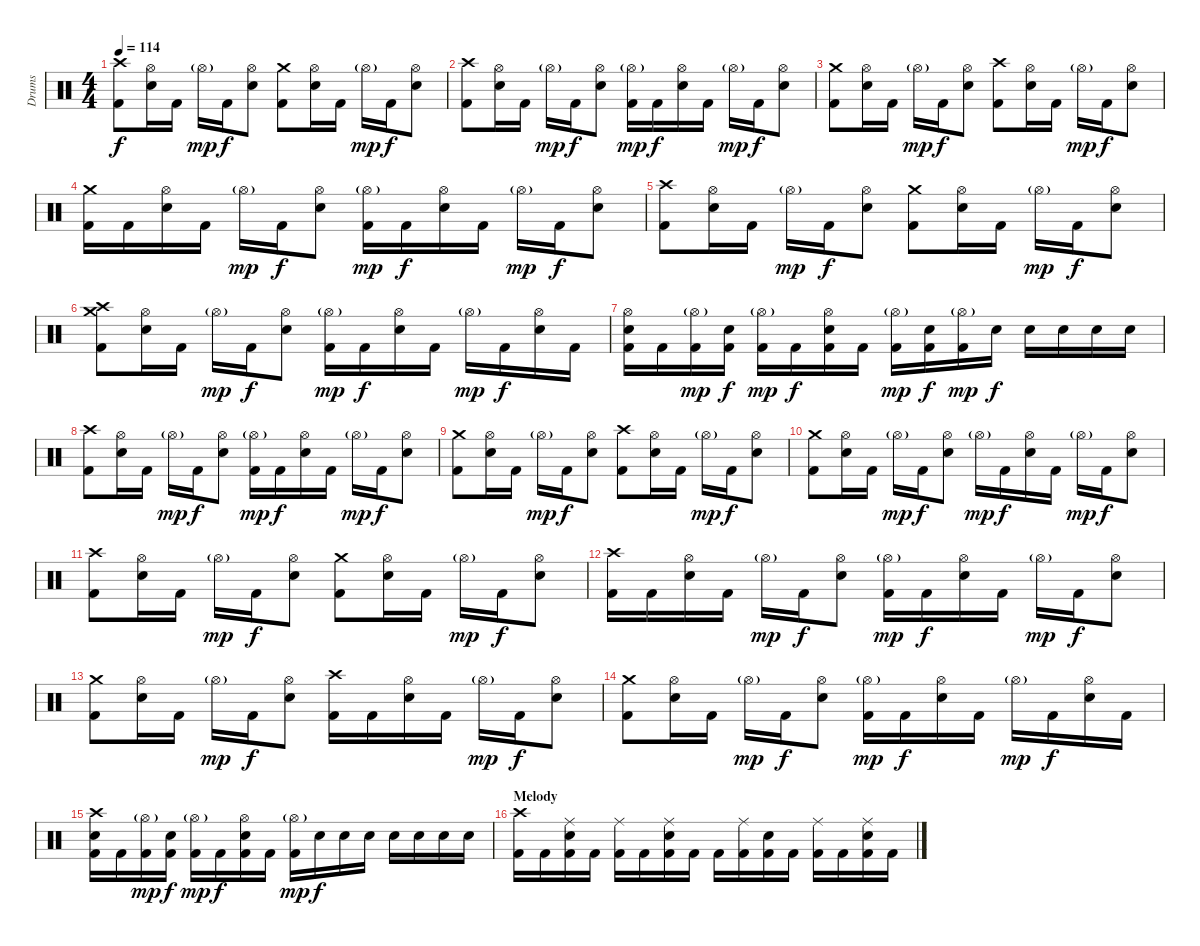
\track ("Drums" "Drums") {instrument percussion}
\staff {score}
\articulation defaults
\ts (4 4)
\tempo 114
\clef neutral
\ks c
("Crash high (hit)" "Kick (hit) 2").8{dy f} ("Hi-Hat (open)" "Snare (hit) 2").16 "Kick (hit) 2".16 "Hi-Hat (open)"{g}.16{dy mp} "Kick (hit) 2".16{dy f} ("Hi-Hat (open)" "Snare (hit) 2").8 ("Crash medium (hit)" "Kick (hit) 2").8 ("Hi-Hat (open)" "Snare (hit) 2").16 "Kick (hit) 2".16 "Hi-Hat (open)"{g}.16{dy mp} "Kick (hit) 2".16{dy f} ("Hi-Hat (open)" "Snare (hit) 2").8 |
("Crash high (hit)" "Kick (hit) 2").8 ("Hi-Hat (open)" "Snare (hit) 2").16 "Kick (hit) 2".16 "Hi-Hat (open)"{g}.16{dy mp} "Kick (hit) 2".16{dy f} ("Hi-Hat (open)" "Snare (hit) 2").8 ("Hi-Hat (open)"{g} "Kick (hit) 2").16{dy mp} "Kick (hit) 2".16{dy f} ("Hi-Hat (open)" "Snare (hit) 2").16 "Kick (hit) 2".16 "Hi-Hat (open)"{g}.16{dy mp} "Kick (hit) 2".16{dy f} ("Hi-Hat (open)" "Snare (hit) 2").8 |
("Crash medium (hit)" "Kick (hit) 2").8 ("Hi-Hat (open)" "Snare (hit) 2").16 "Kick (hit) 2".16 "Hi-Hat (open)"{g}.16{dy mp} "Kick (hit) 2".16{dy f} ("Hi-Hat (open)" "Snare (hit) 2").8 ("Crash high (hit)" "Kick (hit) 2").8 ("Hi-Hat (open)" "Snare (hit) 2").16 "Kick (hit) 2".16 "Hi-Hat (open)"{g}.16{dy mp} "Kick (hit) 2".16{dy f} ("Hi-Hat (open)" "Snare (hit) 2").8 |
("Crash medium (hit)" "Kick (hit) 2").16 "Kick (hit) 2".16 ("Hi-Hat (open)" "Snare (hit) 2").16 "Kick (hit) 2".16 "Hi-Hat (open)"{g}.16{dy mp} "Kick (hit) 2".16{dy f} ("Hi-Hat (open)" "Snare (hit) 2").8 ("Hi-Hat (open)"{g} "Kick (hit) 2").16{dy mp} "Kick (hit) 2".16{dy f} ("Hi-Hat (open)" "Snare (hit) 2").16 "Kick (hit) 2".16 "Hi-Hat (open)"{g}.16{dy mp} "Kick (hit) 2".16{dy f} ("Hi-Hat (open)" "Snare (hit) 2").8 |
("Crash high (hit)" "Kick (hit) 2").8 ("Hi-Hat (open)" "Snare (hit) 2").16 "Kick (hit) 2".16 "Hi-Hat (open)"{g}.16{dy mp} "Kick (hit) 2".16{dy f} ("Hi-Hat (open)" "Snare (hit) 2").8 ("Crash medium (hit)" "Kick (hit) 2").8 ("Hi-Hat (open)" "Snare (hit) 2").16 "Kick (hit) 2".16 "Hi-Hat (open)"{g}.16{dy mp} "Kick (hit) 2".16{dy f} ("Hi-Hat (open)" "Snare (hit) 2").8 |
("Crash medium (hit)" "Crash high (hit)" "Kick (hit) 2").8 ("Hi-Hat (open)" "Snare (hit) 2").16 "Kick (hit) 2".16 "Hi-Hat (open)"{g}.16{dy mp} "Kick (hit) 2".16{dy f} ("Hi-Hat (open)" "Snare (hit) 2").8 ("Hi-Hat (open)"{g} "Kick (hit) 2").16{dy mp} "Kick (hit) 2".16{dy f} ("Hi-Hat (open)" "Snare (hit) 2").16 "Kick (hit) 2".16 "Hi-Hat (open)"{g}.16{dy mp} "Kick (hit) 2".16{dy f} ("Hi-Hat (open)" "Snare (hit) 2").16 "Kick (hit) 2".16 |
("Hi-Hat (open)" "Snare (hit) 2" "Kick (hit) 2").16 "Kick (hit) 2".16 ("Hi-Hat (open)"{g} "Kick (hit) 2").16{dy mp} ("Snare (hit) 2" "Kick (hit) 2").16{dy f} ("Hi-Hat (open)"{g} "Kick (hit) 2").16{dy mp} "Kick (hit) 2".16{dy f} ("Hi-Hat (open)" "Snare (hit) 2" "Kick (hit) 2").16 "Kick (hit) 2".16 ("Hi-Hat (open)"{g} "Kick (hit) 2").16{dy mp} ("Snare (hit) 2" "Kick (hit) 2").16{dy f} ("Hi-Hat (open)"{g} "Kick (hit) 2").16{dy mp} "Snare (hit) 2".16{dy f} "Snare (hit) 2".16 "Snare (hit) 2".16 "Snare (hit) 2".16 "Snare (hit) 2".16 |
("Crash high (hit)" "Kick (hit) 2").8 ("Hi-Hat (open)" "Snare (hit) 2").16 "Kick (hit) 2".16 "Hi-Hat (open)"{g}.16{dy mp} "Kick (hit) 2".16{dy f} ("Hi-Hat (open)" "Snare (hit) 2").8 ("Hi-Hat (open)"{g} "Kick (hit) 2").16{dy mp} "Kick (hit) 2".16{dy f} ("Hi-Hat (open)" "Snare (hit) 2").16 "Kick (hit) 2".16 "Hi-Hat (open)"{g}.16{dy mp} "Kick (hit) 2".16{dy f} ("Hi-Hat (open)" "Snare (hit) 2").8 |
("Crash medium (hit)" "Kick (hit) 2").8 ("Hi-Hat (open)" "Snare (hit) 2").16 "Kick (hit) 2".16 "Hi-Hat (open)"{g}.16{dy mp} "Kick (hit) 2".16{dy f} ("Hi-Hat (open)" "Snare (hit) 2").8 ("Crash high (hit)" "Kick (hit) 2").8 ("Hi-Hat (open)" "Snare (hit) 2").16 "Kick (hit) 2".16 "Hi-Hat (open)"{g}.16{dy mp} "Kick (hit) 2".16{dy f} ("Hi-Hat (open)" "Snare (hit) 2").8 |
("Crash medium (hit)" "Kick (hit) 2").8 ("Hi-Hat (open)" "Snare (hit) 2").16 "Kick (hit) 2".16 "Hi-Hat (open)"{g}.16{dy mp} "Kick (hit) 2".16{dy f} ("Hi-Hat (open)" "Snare (hit) 2").8 "Hi-Hat (open)"{g}.16{dy mp} "Kick (hit) 2".16{dy f} ("Hi-Hat (open)" "Snare (hit) 2").16 "Kick (hit) 2".16 "Hi-Hat (open)"{g}.16{dy mp} "Kick (hit) 2".16{dy f} ("Hi-Hat (open)" "Snare (hit) 2").8 |
("Crash high (hit)" "Kick (hit) 2").8 ("Hi-Hat (open)" "Snare (hit) 2").16 "Kick (hit) 2".16 "Hi-Hat (open)"{g}.16{dy mp} "Kick (hit) 2".16{dy f} ("Hi-Hat (open)" "Snare (hit) 2").8 ("Crash medium (hit)" "Kick (hit) 2").8 ("Hi-Hat (open)" "Snare (hit) 2").16 "Kick (hit) 2".16 "Hi-Hat (open)"{g}.16{dy mp} "Kick (hit) 2".16{dy f} ("Hi-Hat (open)" "Snare (hit) 2").8 |
("Crash high (hit)" "Kick (hit) 2").16 "Kick (hit) 2".16 ("Hi-Hat (open)" "Snare (hit) 2").16 "Kick (hit) 2".16 "Hi-Hat (open)"{g}.16{dy mp} "Kick (hit) 2".16{dy f} ("Hi-Hat (open)" "Snare (hit) 2").8 ("Hi-Hat (open)"{g} "Kick (hit) 2").16{dy mp} "Kick (hit) 2".16{dy f} ("Hi-Hat (open)" "Snare (hit) 2").16 "Kick (hit) 2".16 "Hi-Hat (open)"{g}.16{dy mp} "Kick (hit) 2".16{dy f} ("Hi-Hat (open)" "Snare (hit) 2").8 |
("Crash medium (hit)" "Kick (hit) 2").8 ("Hi-Hat (open)" "Snare (hit) 2").16 "Kick (hit) 2".16 "Hi-Hat (open)"{g}.16{dy mp} "Kick (hit) 2".16{dy f} ("Hi-Hat (open)" "Snare (hit) 2").8 ("Crash high (hit)" "Kick (hit) 2").16 "Kick (hit) 2".16 ("Hi-Hat (open)" "Snare (hit) 2").16 "Kick (hit) 2".16 "Hi-Hat (open)"{g}.16{dy mp} "Kick (hit) 2".16{dy f} ("Hi-Hat (open)" "Snare (hit) 2").8 |
("Crash medium (hit)" "Kick (hit) 2").8 ("Hi-Hat (open)" "Snare (hit) 2").16 "Kick (hit) 2".16 "Hi-Hat (open)"{g}.16{dy mp} "Kick (hit) 2".16{dy f} ("Hi-Hat (open)" "Snare (hit) 2").8 ("Hi-Hat (open)"{g} "Kick (hit) 2").16{dy mp} "Kick (hit) 2".16{dy f} ("Hi-Hat (open)" "Snare (hit) 2").16 "Kick (hit) 2".16 "Hi-Hat (open)"{g}.16{dy mp} "Kick (hit) 2".16{dy f} ("Hi-Hat (open)" "Snare (hit) 2").16 "Kick (hit) 2".16 |
("Crash high (hit)" "Snare (hit) 2" "Kick (hit) 2").16 "Kick (hit) 2".16 ("Hi-Hat (open)"{g} "Kick (hit) 2").16{dy mp} ("Snare (hit) 2" "Kick (hit) 2").16{dy f} ("Hi-Hat (open)"{g} "Kick (hit) 2").16{dy mp} "Kick (hit) 2".16{dy f} ("Hi-Hat (open)" "Snare (hit) 2" "Kick (hit) 2").16 "Kick (hit) 2".16 ("Hi-Hat (open)"{g} "Kick (hit) 2").16{dy mp} "Snare (hit) 2".16{dy f} "Snare (hit) 2".16 "Snare (hit) 2".16 "Snare (hit) 2".16 "Snare (hit) 2".16 "Snare (hit) 2".16 "Snare (hit) 2".16 |
\section ("" "Melody")
("Crash high (hit)" "Kick (hit) 2").16 "Kick (hit) 2".16 ("Ride (middle)" "Snare (hit) 2" "Kick (hit) 2").16 "Kick (hit) 2".16 ("Ride (middle)" "Kick (hit) 2").16 "Kick (hit) 2".16 ("Ride (middle)" "Snare (hit) 2" "Kick (hit) 2").16 "Kick (hit) 2".16 "Kick (hit) 2".16 ("Ride (middle)" "Kick (hit) 2").16 ("Snare (hit) 2" "Kick (hit) 2").16 "Kick (hit) 2".16 ("Ride (middle)" "Kick (hit) 2").16 "Kick (hit) 2".16 ("Ride (middle)" "Snare (hit) 2" "Kick (hit) 2").16 "Kick (hit) 2".16
